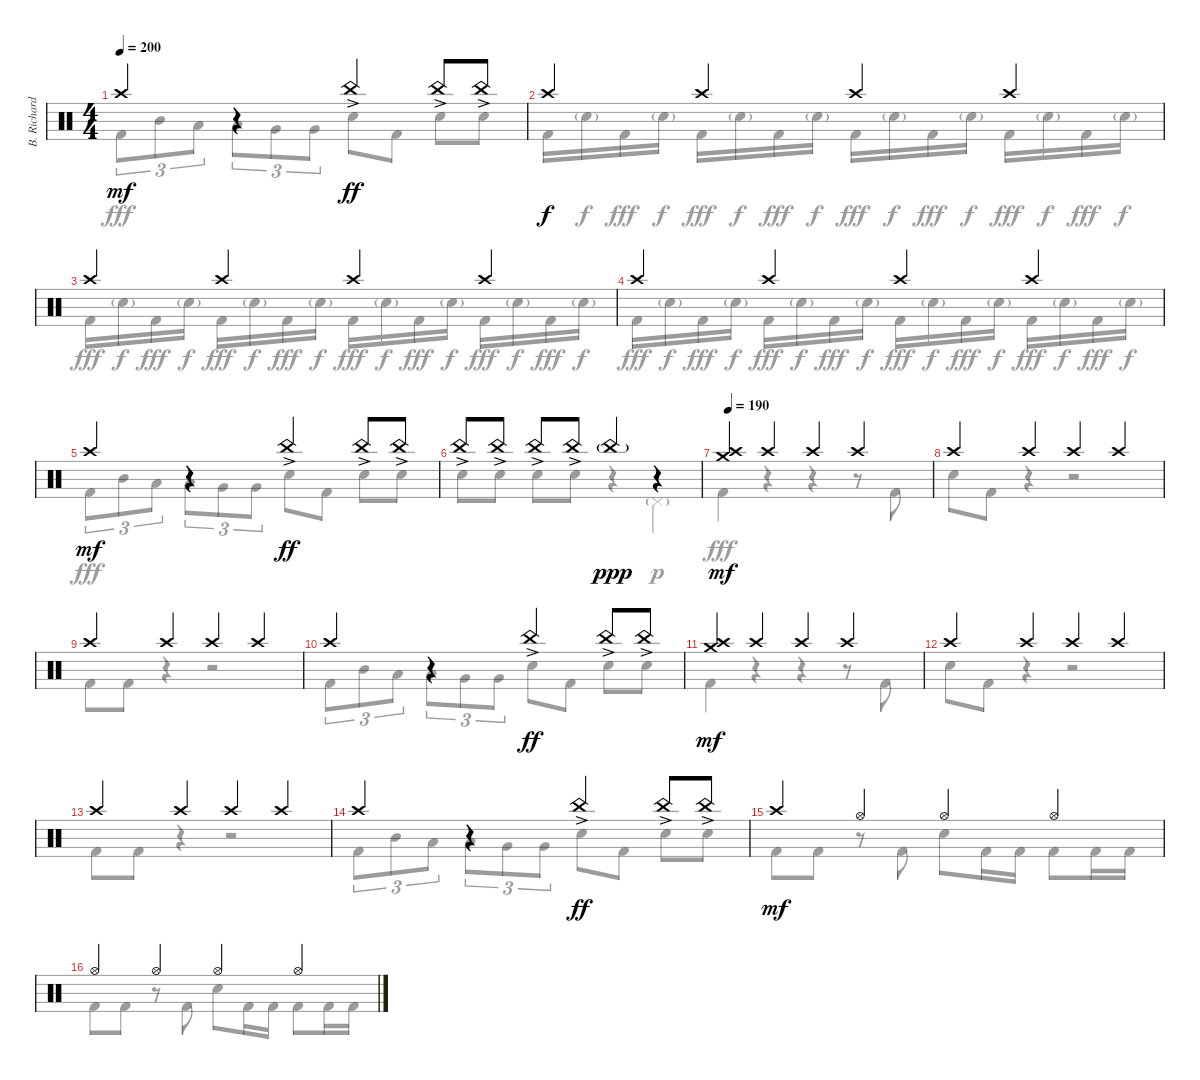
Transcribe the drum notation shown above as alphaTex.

\track ("B. Richardson Drums" "B. Richard") {instrument percussion}
\staff {score}
\articulation defaults
\voice
\ts (4 4)
\tempo 200
\clef neutral
\ks c "Crash high (hit)".4{dy mf}
r.4 "China (hit)"{ac}.4{dy ff} "China (hit)"{ac}.8 "China (hit)"{ac}.8 |
"Crash high (hit)".4{dy f} "Crash high (hit)".4 "Crash high (hit)".4 "Crash high (hit)".4 |
"Crash high (hit)".4 "Crash high (hit)".4 "Crash high (hit)".4 "Crash high (hit)".4 |
"Crash high (hit)".4 "Crash high (hit)".4 "Crash high (hit)".4 "Crash high (hit)".4 |
"Crash high (hit)".4{dy mf} r.4 "China (hit)"{ac}.4{dy ff} "China (hit)"{ac}.8 "China (hit)"{ac}.8 |
"China (hit)"{ac}.8 "China (hit)"{ac}.8 "China (hit)"{ac}.8 "China (hit)"{ac}.8 "China (hit)"{g}.4{dy ppp} r.4 |
\tempo 190
("Crash high (hit)" "Crash medium (hit)").4{dy mf} "Crash high (hit)".4 "Crash high (hit)".4 "Crash high (hit)".4 |
"Crash high (hit)".4 "Crash high (hit)".4 "Crash high (hit)".4 "Crash high (hit)".4 |
"Crash high (hit)".4 "Crash high (hit)".4 "Crash high (hit)".4 "Crash high (hit)".4 |
"Crash high (hit)".4 r.4 "China (hit)"{ac}.4{dy ff} "China (hit)"{ac}.8 "China (hit)"{ac}.8 |
("Crash high (hit)" "Crash medium (hit)").4{dy mf} "Crash high (hit)".4 "Crash high (hit)".4 "Crash high (hit)".4 |
"Crash high (hit)".4 "Crash high (hit)".4 "Crash high (hit)".4 "Crash high (hit)".4 |
"Crash high (hit)".4 "Crash high (hit)".4 "Crash high (hit)".4 "Crash high (hit)".4 |
"Crash high (hit)".4 r.4 "China (hit)"{ac}.4{dy ff} "China (hit)"{ac}.8 "China (hit)"{ac}.8 |
"Crash high (hit)".4{dy mf} "Hi-Hat (open)".4 "Hi-Hat (open)".4 "Hi-Hat (open)".4 |
"Hi-Hat (open)".4 "Hi-Hat (open)".4 "Hi-Hat (open)".4 "Hi-Hat (open)".4
\voice
\clef neutral
\ottava regular
\simile none
\ks c "Kick (hit) 2".8{tu (3 2) dy fff} "Mid Tom (hit)".8{tu (3 2)} "Low Tom (hit)".8{tu (3 2)} "Low Tom (hit)".8{tu (3 2)} "Very Low Tom (hit)".8{tu (3 2)} "Very Low Tom (hit)".8{tu (3 2)} "Electric Snare (hit)".8 "Kick (hit) 2".8 "Electric Snare (hit)".8 "Electric Snare (hit)".8
|
"Kick (hit) 2".16 "Electric Snare (hit)"{g}.16{dy f} "Kick (hit) 2".16{dy fff} "Electric Snare (hit)"{g}.16{dy f} "Kick (hit) 2".16{dy fff} "Electric Snare (hit)"{g}.16{dy f} "Kick (hit) 2".16{dy fff} "Electric Snare (hit)"{g}.16{dy f} "Kick (hit) 2".16{dy fff} "Electric Snare (hit)"{g}.16{dy f} "Kick (hit) 2".16{dy fff} "Electric Snare (hit)"{g}.16{dy f} "Kick (hit) 2".16{dy fff} "Electric Snare (hit)"{g}.16{dy f} "Kick (hit) 2".16{dy fff} "Electric Snare (hit)"{g}.16{dy f} |
"Kick (hit) 2".16{dy fff} "Electric Snare (hit)"{g}.16{dy f} "Kick (hit) 2".16{dy fff} "Electric Snare (hit)"{g}.16{dy f} "Kick (hit) 2".16{dy fff} "Electric Snare (hit)"{g}.16{dy f} "Kick (hit) 2".16{dy fff} "Electric Snare (hit)"{g}.16{dy f} "Kick (hit) 2".16{dy fff} "Electric Snare (hit)"{g}.16{dy f} "Kick (hit) 2".16{dy fff} "Electric Snare (hit)"{g}.16{dy f} "Kick (hit) 2".16{dy fff} "Electric Snare (hit)"{g}.16{dy f} "Kick (hit) 2".16{dy fff} "Electric Snare (hit)"{g}.16{dy f} |
"Kick (hit) 2".16{dy fff} "Electric Snare (hit)"{g}.16{dy f} "Kick (hit) 2".16{dy fff} "Electric Snare (hit)"{g}.16{dy f} "Kick (hit) 2".16{dy fff} "Electric Snare (hit)"{g}.16{dy f} "Kick (hit) 2".16{dy fff} "Electric Snare (hit)"{g}.16{dy f} "Kick (hit) 2".16{dy fff} "Electric Snare (hit)"{g}.16{dy f} "Kick (hit) 2".16{dy fff} "Electric Snare (hit)"{g}.16{dy f} "Kick (hit) 2".16{dy fff} "Electric Snare (hit)"{g}.16{dy f} "Kick (hit) 2".16{dy fff} "Electric Snare (hit)"{g}.16{dy f} |
"Kick (hit) 2".8{tu (3 2) dy fff} "Mid Tom (hit)".8{tu (3 2)} "Low Tom (hit)".8{tu (3 2)} "Low Tom (hit)".8{tu (3 2)} "Very Low Tom (hit)".8{tu (3 2)} "Very Low Tom (hit)".8{tu (3 2)} "Electric Snare (hit)".8 "Kick (hit) 2".8 "Electric Snare (hit)".8 "Electric Snare (hit)".8 |
"Electric Snare (hit)".8 "Electric Snare (hit)".8 "Electric Snare (hit)".8 "Electric Snare (hit)".8 r.4 "Pedal Hi-Hat (hit)"{g}.4{dy p} |
"Kick (hit) 2".4{dy fff} r.4 r.4 r.8 "Kick (hit) 2".8 |
"Electric Snare (hit)".8 "Kick (hit) 2".8 r.4 r.2 |
"Kick (hit) 2".8 "Kick (hit) 2".8 r.4 r.2 |
"Kick (hit) 2".8{tu (3 2)} "Mid Tom (hit)".8{tu (3 2)} "Low Tom (hit)".8{tu (3 2)} "Low Tom (hit)".8{tu (3 2)} "Very Low Tom (hit)".8{tu (3 2)} "Very Low Tom (hit)".8{tu (3 2)} "Electric Snare (hit)".8 "Kick (hit) 2".8 "Electric Snare (hit)".8 "Electric Snare (hit)".8 |
"Kick (hit) 2".4 r.4 r.4 r.8 "Kick (hit) 2".8 |
"Electric Snare (hit)".8 "Kick (hit) 2".8 r.4 r.2 |
"Kick (hit) 2".8 "Kick (hit) 2".8 r.4 r.2 |
"Kick (hit) 2".8{tu (3 2)} "Mid Tom (hit)".8{tu (3 2)} "Low Tom (hit)".8{tu (3 2)} "Low Tom (hit)".8{tu (3 2)} "Very Low Tom (hit)".8{tu (3 2)} "Very Low Tom (hit)".8{tu (3 2)} "Electric Snare (hit)".8 "Kick (hit) 2".8 "Electric Snare (hit)".8 "Electric Snare (hit)".8 |
"Kick (hit) 2".8 "Kick (hit) 2".8 r.8 "Kick (hit) 2".8 "Electric Snare (hit)".8 "Kick (hit) 2".16 "Kick (hit) 2".16 "Kick (hit) 2".8 "Kick (hit) 2".16 "Kick (hit) 2".16 |
"Kick (hit) 2".8 "Kick (hit) 2".8 r.8 "Kick (hit) 2".8 "Electric Snare (hit)".8 "Kick (hit) 2".16 "Kick (hit) 2".16 "Kick (hit) 2".8 "Kick (hit) 2".16 "Kick (hit) 2".16
